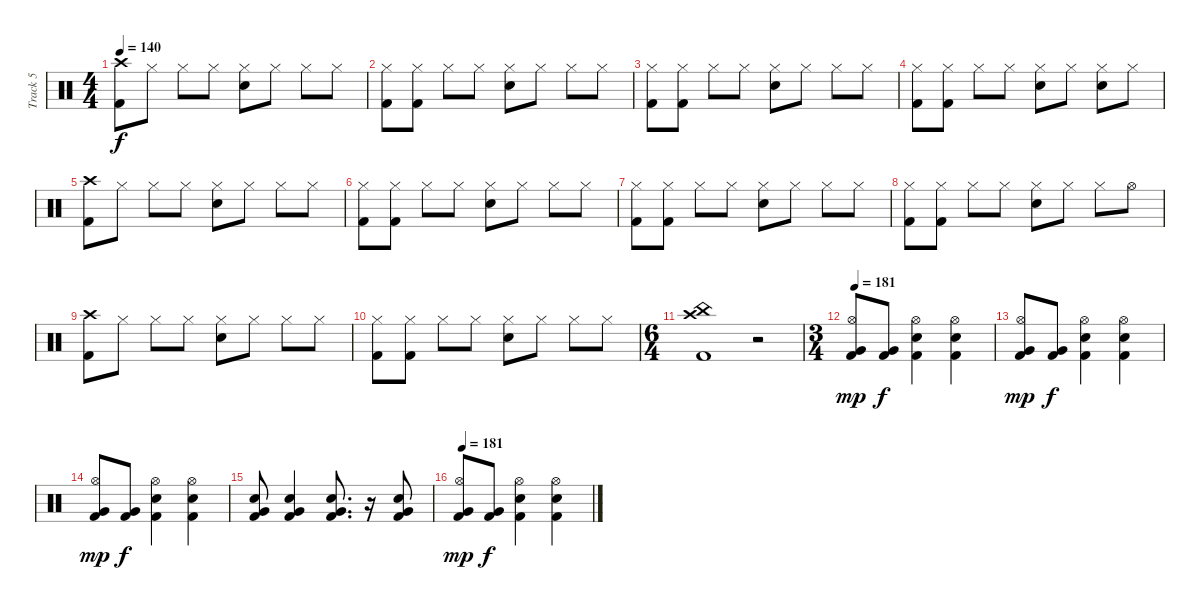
\track ("Track 5" "Track 5") {instrument percussion}
\staff {score}
\articulation defaults
\ts (4 4)
\tempo 140
\clef neutral
\ks c
("Kick (hit) 2" "Crash high (hit)").8{dy f} "Hi-Hat (closed)".8 "Hi-Hat (closed)".8 "Hi-Hat (closed)".8 ("Electric Snare (hit)" "Hi-Hat (closed)").8 "Hi-Hat (closed)".8 "Hi-Hat (closed)".8 "Hi-Hat (closed)".8 |
("Kick (hit) 2" "Hi-Hat (closed)").8 ("Hi-Hat (closed)" "Kick (hit) 2").8 "Hi-Hat (closed)".8 "Hi-Hat (closed)".8 ("Electric Snare (hit)" "Hi-Hat (closed)").8 "Hi-Hat (closed)".8 "Hi-Hat (closed)".8 "Hi-Hat (closed)".8 |
("Kick (hit) 2" "Hi-Hat (closed)").8 ("Hi-Hat (closed)" "Kick (hit) 2").8 "Hi-Hat (closed)".8 "Hi-Hat (closed)".8 ("Electric Snare (hit)" "Hi-Hat (closed)").8 "Hi-Hat (closed)".8 "Hi-Hat (closed)".8 "Hi-Hat (closed)".8 |
("Kick (hit) 2" "Hi-Hat (closed)").8 ("Hi-Hat (closed)" "Kick (hit) 2").8 "Hi-Hat (closed)".8 "Hi-Hat (closed)".8 ("Electric Snare (hit)" "Hi-Hat (closed)").8 "Hi-Hat (closed)".8 ("Hi-Hat (closed)" "Electric Snare (hit)").8 "Hi-Hat (closed)".8 |
("Kick (hit) 2" "Crash high (hit)").8 "Hi-Hat (closed)".8 "Hi-Hat (closed)".8 "Hi-Hat (closed)".8 ("Electric Snare (hit)" "Hi-Hat (closed)").8 "Hi-Hat (closed)".8 "Hi-Hat (closed)".8 "Hi-Hat (closed)".8 |
("Kick (hit) 2" "Hi-Hat (closed)").8 ("Hi-Hat (closed)" "Kick (hit) 2").8 "Hi-Hat (closed)".8 "Hi-Hat (closed)".8 ("Electric Snare (hit)" "Hi-Hat (closed)").8 "Hi-Hat (closed)".8 "Hi-Hat (closed)".8 "Hi-Hat (closed)".8 |
("Kick (hit) 2" "Hi-Hat (closed)").8 ("Hi-Hat (closed)" "Kick (hit) 2").8 "Hi-Hat (closed)".8 "Hi-Hat (closed)".8 ("Electric Snare (hit)" "Hi-Hat (closed)").8 "Hi-Hat (closed)".8 "Hi-Hat (closed)".8 "Hi-Hat (closed)".8 |
("Kick (hit) 2" "Hi-Hat (closed)").8 ("Hi-Hat (closed)" "Kick (hit) 2").8 "Hi-Hat (closed)".8 "Hi-Hat (closed)".8 ("Electric Snare (hit)" "Hi-Hat (closed)").8 "Hi-Hat (closed)".8 "Hi-Hat (closed)".8 "Hi-Hat (open)".8 |
("Kick (hit) 2" "Crash high (hit)").8 "Hi-Hat (closed)".8 "Hi-Hat (closed)".8 "Hi-Hat (closed)".8 ("Electric Snare (hit)" "Hi-Hat (closed)").8 "Hi-Hat (closed)".8 "Hi-Hat (closed)".8 "Hi-Hat (closed)".8 |
("Kick (hit) 2" "Hi-Hat (closed)").8 ("Hi-Hat (closed)" "Kick (hit) 2").8 "Hi-Hat (closed)".8 "Hi-Hat (closed)".8 ("Electric Snare (hit)" "Hi-Hat (closed)").8 "Hi-Hat (closed)".8 "Hi-Hat (closed)".8 "Hi-Hat (closed)".8 |
\ts (6 4)
("Crash high (hit)" "Kick (hit) 2" "China (hit)").1 r.2 |
\ts (3 4)
\tempo 181
("Kick (hit) 2" "Very Low Tom (hit)" "Hi-Hat (open)").8{dy mp} ("Kick (hit) 2" "Very Low Tom (hit)").8{dy f} ("Electric Snare (hit)" "Kick (hit) 2" "Hi-Hat (open)").4 ("Electric Snare (hit)" "Kick (hit) 2" "Hi-Hat (open)").4 |
("Kick (hit) 2" "Very Low Tom (hit)" "Hi-Hat (open)").8{dy mp} ("Kick (hit) 2" "Very Low Tom (hit)").8{dy f} ("Electric Snare (hit)" "Kick (hit) 2" "Hi-Hat (open)").4 ("Electric Snare (hit)" "Kick (hit) 2" "Hi-Hat (open)").4 |
("Kick (hit) 2" "Very Low Tom (hit)" "Hi-Hat (open)").8{dy mp} ("Kick (hit) 2" "Very Low Tom (hit)").8{dy f} ("Electric Snare (hit)" "Kick (hit) 2" "Hi-Hat (open)").4 ("Electric Snare (hit)" "Kick (hit) 2" "Hi-Hat (open)").4 |
("Electric Snare (hit)" "Kick (hit) 2" "Very Low Tom (hit)").8 ("Electric Snare (hit)" "Kick (hit) 2" "Very Low Tom (hit)").4 ("Electric Snare (hit)" "Kick (hit) 2" "Very Low Tom (hit)").8{d} r.16 ("Electric Snare (hit)" "Kick (hit) 2" "Very Low Tom (hit)").8 |
\tempo 181
("Kick (hit) 2" "Very Low Tom (hit)" "Hi-Hat (open)").8{dy mp} ("Kick (hit) 2" "Very Low Tom (hit)").8{dy f} ("Electric Snare (hit)" "Kick (hit) 2" "Hi-Hat (open)").4 ("Electric Snare (hit)" "Kick (hit) 2" "Hi-Hat (open)").4
